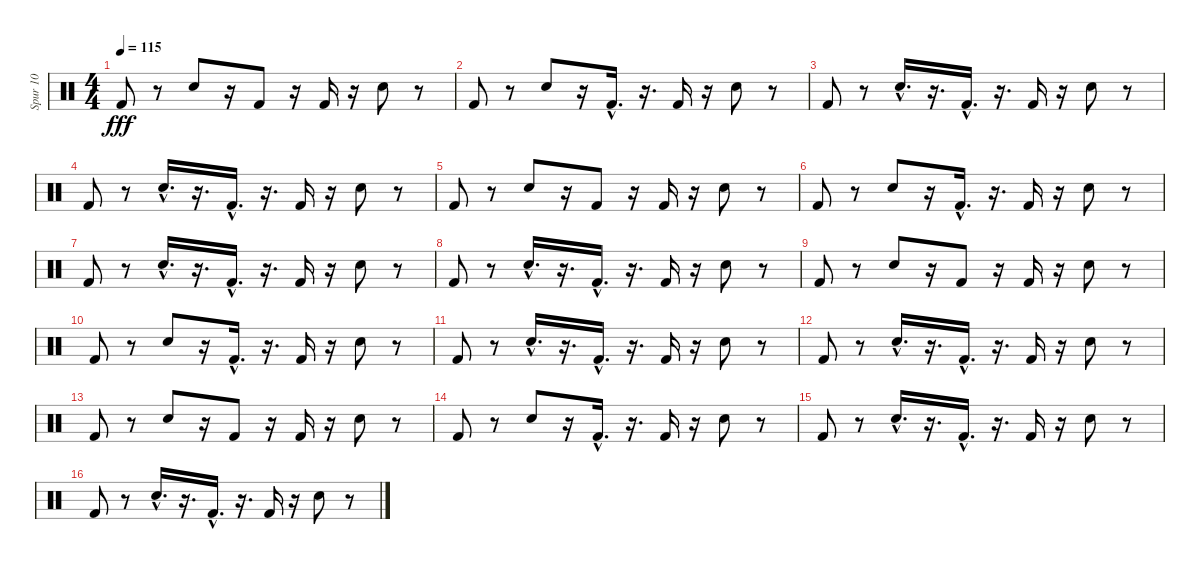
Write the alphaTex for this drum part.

\track ("Spur 10" "Spur 10") {instrument percussion}
\staff {score}
\articulation defaults
\ts (4 4)
\tempo 115
\clef neutral
\ks c "Kick (hit) 2".8{dy fff}
r.8 "Snare (hit) 2".8 r.16 "Kick (hit) 2".8 r.16 "Kick (hit) 2".16 r.16 "Snare (hit) 2".8 r.8 |
"Kick (hit) 2".8 r.8 "Snare (hit) 2".8 r.16 "Kick (hit) 2"{hac}.16{d} r.16{d} "Kick (hit) 2".16 r.16 "Snare (hit) 2".8 r.8 |
"Kick (hit) 2".8 r.8 "Snare (hit) 2"{hac}.16{d} r.16{d} "Kick (hit) 2"{hac}.16{d} r.16{d} "Kick (hit) 2".16 r.16 "Snare (hit) 2".8 r.8 |
"Kick (hit) 2".8 r.8 "Snare (hit) 2"{hac}.16{d} r.16{d} "Kick (hit) 2"{hac}.16{d} r.16{d} "Kick (hit) 2".16 r.16 "Snare (hit) 2".8 r.8 |
"Kick (hit) 2".8 r.8 "Snare (hit) 2".8 r.16 "Kick (hit) 2".8 r.16 "Kick (hit) 2".16 r.16 "Snare (hit) 2".8 r.8 |
"Kick (hit) 2".8 r.8 "Snare (hit) 2".8 r.16 "Kick (hit) 2"{hac}.16{d} r.16{d} "Kick (hit) 2".16 r.16 "Snare (hit) 2".8 r.8 |
"Kick (hit) 2".8 r.8 "Snare (hit) 2"{hac}.16{d} r.16{d} "Kick (hit) 2"{hac}.16{d} r.16{d} "Kick (hit) 2".16 r.16 "Snare (hit) 2".8 r.8 |
"Kick (hit) 2".8 r.8 "Snare (hit) 2"{hac}.16{d} r.16{d} "Kick (hit) 2"{hac}.16{d} r.16{d} "Kick (hit) 2".16 r.16 "Snare (hit) 2".8 r.8 |
"Kick (hit) 2".8 r.8 "Snare (hit) 2".8 r.16 "Kick (hit) 2".8 r.16 "Kick (hit) 2".16 r.16 "Snare (hit) 2".8 r.8 |
"Kick (hit) 2".8 r.8 "Snare (hit) 2".8 r.16 "Kick (hit) 2"{hac}.16{d} r.16{d} "Kick (hit) 2".16 r.16 "Snare (hit) 2".8 r.8 |
"Kick (hit) 2".8 r.8 "Snare (hit) 2"{hac}.16{d} r.16{d} "Kick (hit) 2"{hac}.16{d} r.16{d} "Kick (hit) 2".16 r.16 "Snare (hit) 2".8 r.8 |
"Kick (hit) 2".8 r.8 "Snare (hit) 2"{hac}.16{d} r.16{d} "Kick (hit) 2"{hac}.16{d} r.16{d} "Kick (hit) 2".16 r.16 "Snare (hit) 2".8 r.8 |
"Kick (hit) 2".8 r.8 "Snare (hit) 2".8 r.16 "Kick (hit) 2".8 r.16 "Kick (hit) 2".16 r.16 "Snare (hit) 2".8 r.8 |
"Kick (hit) 2".8 r.8 "Snare (hit) 2".8 r.16 "Kick (hit) 2"{hac}.16{d} r.16{d} "Kick (hit) 2".16 r.16 "Snare (hit) 2".8 r.8 |
"Kick (hit) 2".8 r.8 "Snare (hit) 2"{hac}.16{d} r.16{d} "Kick (hit) 2"{hac}.16{d} r.16{d} "Kick (hit) 2".16 r.16 "Snare (hit) 2".8 r.8 |
"Kick (hit) 2".8 r.8 "Snare (hit) 2"{hac}.16{d} r.16{d} "Kick (hit) 2"{hac}.16{d} r.16{d} "Kick (hit) 2".16 r.16 "Snare (hit) 2".8 r.8
